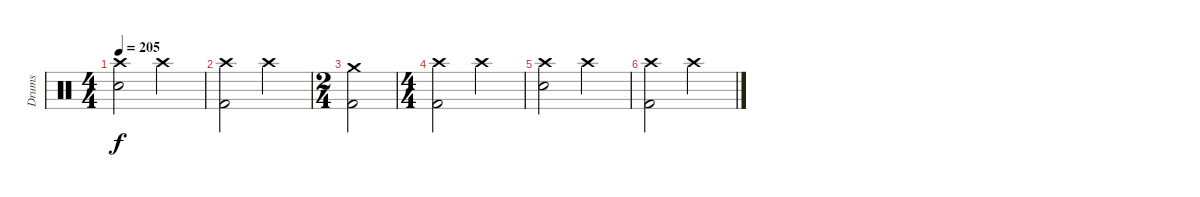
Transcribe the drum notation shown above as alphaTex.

\track ("Drums" "Drums") {instrument percussion}
\staff {score}
\articulation defaults
\ts (4 4)
\tempo 205
\clef neutral
\ks c
("Crash high (hit)" "Electric Snare (hit)").2{dy f} "Crash high (hit)".2 |
("Crash high (hit)" "Kick (hit) 2").2 "Crash high (hit)".2 |
\ts (2 4)
("Crash medium (hit)" "Kick (hit) 2").2 |
\ts (4 4)
("Crash high (hit)" "Kick (hit) 2").2 "Crash high (hit)".2 |
("Crash high (hit)" "Electric Snare (hit)").2 "Crash high (hit)".2 |
("Crash high (hit)" "Kick (hit) 2").2 "Crash high (hit)".2
